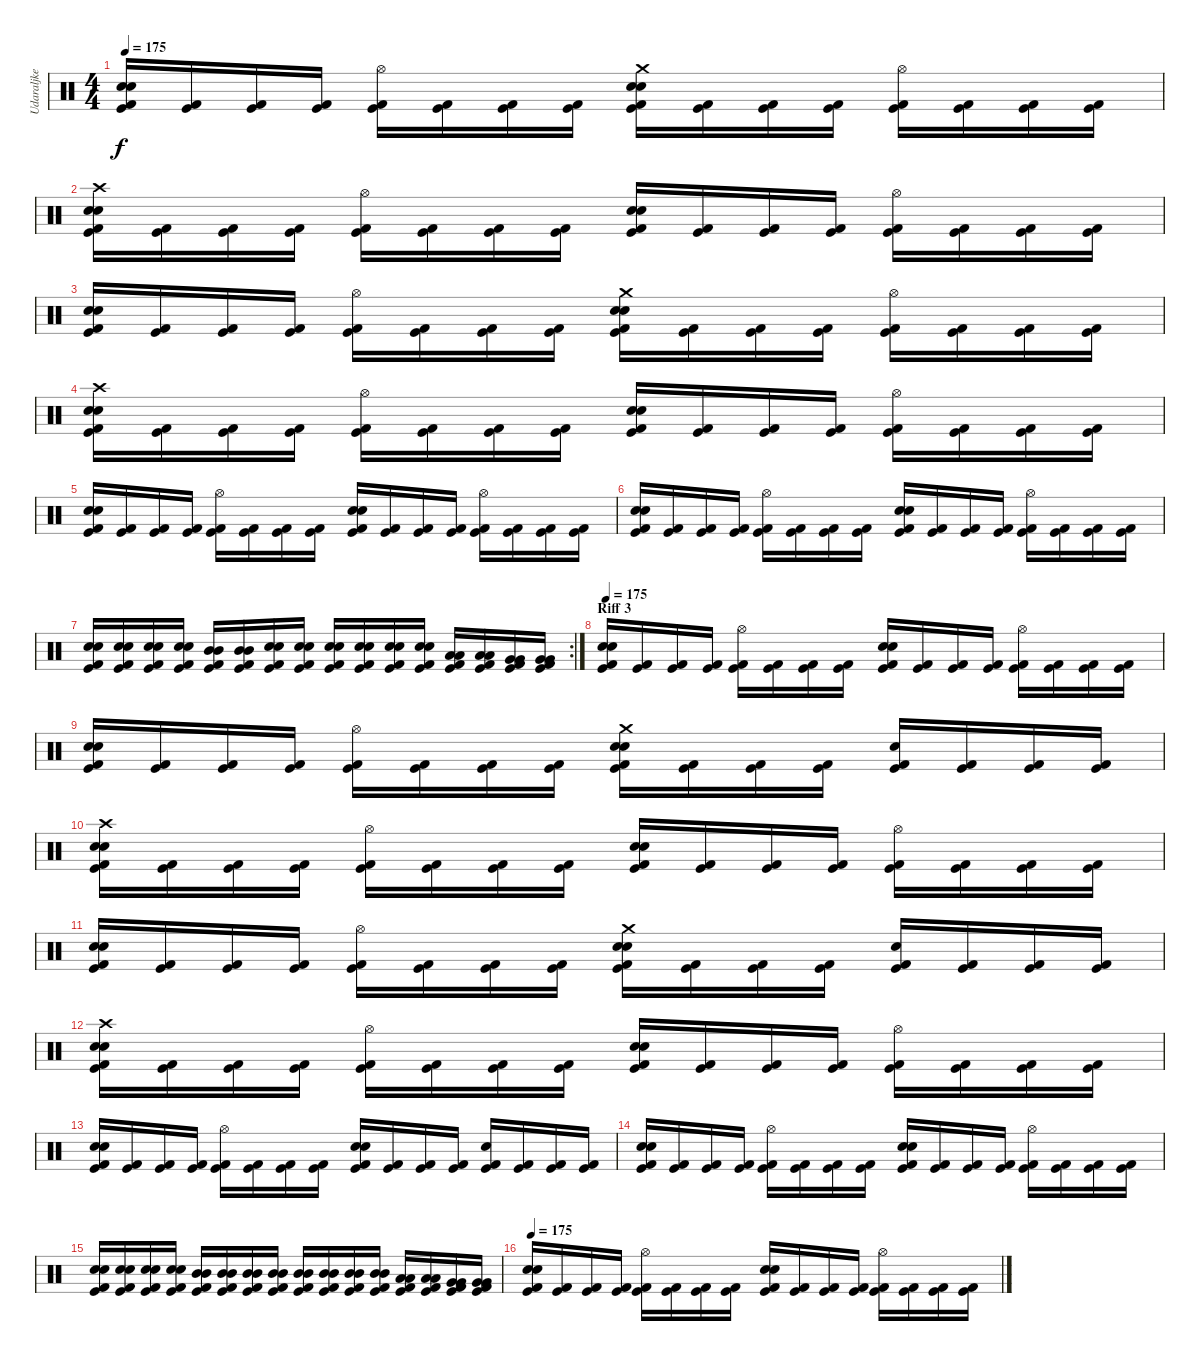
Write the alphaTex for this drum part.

\track ("Udaraljke" "Udaraljke") {instrument percussion}
\staff {score}
\articulation defaults
\ts (4 4)
\tempo 175
\clef neutral
\ks c
("Electric Snare (hit)" "Snare (hit) 2" "Kick (hit) 2" "Kick (hit)").16{dy f} ("Kick (hit) 2" "Kick (hit)").16 ("Kick (hit) 2" "Kick (hit)").16 ("Kick (hit) 2" "Kick (hit)").16 ("Hi-Hat (open)" "Kick (hit) 2" "Kick (hit)").16 ("Kick (hit) 2" "Kick (hit)").16 ("Kick (hit) 2" "Kick (hit)").16 ("Kick (hit) 2" "Kick (hit)").16 ("Crash medium (hit)" "Electric Snare (hit)" "Snare (hit) 2" "Kick (hit) 2" "Kick (hit)").16 ("Kick (hit) 2" "Kick (hit)").16 ("Kick (hit) 2" "Kick (hit)").16 ("Kick (hit) 2" "Kick (hit)").16 ("Hi-Hat (open)" "Kick (hit) 2" "Kick (hit)").16 ("Kick (hit) 2" "Kick (hit)").16 ("Kick (hit) 2" "Kick (hit)").16 ("Kick (hit) 2" "Kick (hit)").16 |
("Crash high (hit)" "Electric Snare (hit)" "Snare (hit) 2" "Kick (hit) 2" "Kick (hit)").16 ("Kick (hit) 2" "Kick (hit)").16 ("Kick (hit) 2" "Kick (hit)").16 ("Kick (hit) 2" "Kick (hit)").16 ("Hi-Hat (open)" "Kick (hit) 2" "Kick (hit)").16 ("Kick (hit) 2" "Kick (hit)").16 ("Kick (hit) 2" "Kick (hit)").16 ("Kick (hit) 2" "Kick (hit)").16 ("Electric Snare (hit)" "Snare (hit) 2" "Kick (hit) 2" "Kick (hit)").16 ("Kick (hit) 2" "Kick (hit)").16 ("Kick (hit) 2" "Kick (hit)").16 ("Kick (hit) 2" "Kick (hit)").16 ("Hi-Hat (open)" "Kick (hit) 2" "Kick (hit)").16 ("Kick (hit) 2" "Kick (hit)").16 ("Kick (hit) 2" "Kick (hit)").16 ("Kick (hit) 2" "Kick (hit)").16 |
("Electric Snare (hit)" "Snare (hit) 2" "Kick (hit) 2" "Kick (hit)").16 ("Kick (hit) 2" "Kick (hit)").16 ("Kick (hit) 2" "Kick (hit)").16 ("Kick (hit) 2" "Kick (hit)").16 ("Hi-Hat (open)" "Kick (hit) 2" "Kick (hit)").16 ("Kick (hit) 2" "Kick (hit)").16 ("Kick (hit) 2" "Kick (hit)").16 ("Kick (hit) 2" "Kick (hit)").16 ("Crash medium (hit)" "Electric Snare (hit)" "Snare (hit) 2" "Kick (hit) 2" "Kick (hit)").16 ("Kick (hit) 2" "Kick (hit)").16 ("Kick (hit) 2" "Kick (hit)").16 ("Kick (hit) 2" "Kick (hit)").16 ("Hi-Hat (open)" "Kick (hit) 2" "Kick (hit)").16 ("Kick (hit) 2" "Kick (hit)").16 ("Kick (hit) 2" "Kick (hit)").16 ("Kick (hit) 2" "Kick (hit)").16 |
("Crash high (hit)" "Electric Snare (hit)" "Snare (hit) 2" "Kick (hit) 2" "Kick (hit)").16 ("Kick (hit) 2" "Kick (hit)").16 ("Kick (hit) 2" "Kick (hit)").16 ("Kick (hit) 2" "Kick (hit)").16 ("Hi-Hat (open)" "Kick (hit) 2" "Kick (hit)").16 ("Kick (hit) 2" "Kick (hit)").16 ("Kick (hit) 2" "Kick (hit)").16 ("Kick (hit) 2" "Kick (hit)").16 ("Electric Snare (hit)" "Snare (hit) 2" "Kick (hit) 2" "Kick (hit)").16 ("Kick (hit) 2" "Kick (hit)").16 ("Kick (hit) 2" "Kick (hit)").16 ("Kick (hit) 2" "Kick (hit)").16 ("Hi-Hat (open)" "Kick (hit) 2" "Kick (hit)").16 ("Kick (hit) 2" "Kick (hit)").16 ("Kick (hit) 2" "Kick (hit)").16 ("Kick (hit) 2" "Kick (hit)").16 |
("Electric Snare (hit)" "Snare (hit) 2" "Kick (hit) 2" "Kick (hit)").16 ("Kick (hit) 2" "Kick (hit)").16 ("Kick (hit) 2" "Kick (hit)").16 ("Kick (hit) 2" "Kick (hit)").16 ("Hi-Hat (open)" "Kick (hit) 2" "Kick (hit)").16 ("Kick (hit) 2" "Kick (hit)").16 ("Kick (hit) 2" "Kick (hit)").16 ("Kick (hit) 2" "Kick (hit)").16 ("Electric Snare (hit)" "Snare (hit) 2" "Kick (hit) 2" "Kick (hit)").16 ("Kick (hit) 2" "Kick (hit)").16 ("Kick (hit) 2" "Kick (hit)").16 ("Kick (hit) 2" "Kick (hit)").16 ("Hi-Hat (open)" "Kick (hit) 2" "Kick (hit)").16 ("Kick (hit) 2" "Kick (hit)").16 ("Kick (hit) 2" "Kick (hit)").16 ("Kick (hit) 2" "Kick (hit)").16 |
("Electric Snare (hit)" "Snare (hit) 2" "Kick (hit) 2" "Kick (hit)").16 ("Kick (hit) 2" "Kick (hit)").16 ("Kick (hit) 2" "Kick (hit)").16 ("Kick (hit) 2" "Kick (hit)").16 ("Hi-Hat (open)" "Kick (hit) 2" "Kick (hit)").16 ("Kick (hit) 2" "Kick (hit)").16 ("Kick (hit) 2" "Kick (hit)").16 ("Kick (hit) 2" "Kick (hit)").16 ("Electric Snare (hit)" "Snare (hit) 2" "Kick (hit) 2" "Kick (hit)").16 ("Kick (hit) 2" "Kick (hit)").16 ("Kick (hit) 2" "Kick (hit)").16 ("Kick (hit) 2" "Kick (hit)").16 ("Hi-Hat (open)" "Kick (hit) 2" "Kick (hit)").16 ("Kick (hit) 2" "Kick (hit)").16 ("Kick (hit) 2" "Kick (hit)").16 ("Kick (hit) 2" "Kick (hit)").16 |
\rc 2
("Electric Snare (hit)" "Electric Snare (hit)" "Kick (hit) 2" "Kick (hit)").16 ("Electric Snare (hit)" "Electric Snare (hit)" "Kick (hit) 2" "Kick (hit)").16 ("Electric Snare (hit)" "Electric Snare (hit)" "Kick (hit) 2" "Kick (hit)").16 ("Electric Snare (hit)" "Electric Snare (hit)" "Kick (hit) 2" "Kick (hit)").16 ("Mid Tom (hit)" "Mid Tom (hit)" "Kick (hit) 2" "Kick (hit)").16 ("Mid Tom (hit)" "Mid Tom (hit)" "Kick (hit) 2" "Kick (hit)").16 ("Electric Snare (hit)" "Electric Snare (hit)" "Kick (hit) 2" "Kick (hit)").16 ("Electric Snare (hit)" "Electric Snare (hit)" "Kick (hit) 2" "Kick (hit)").16 ("Electric Snare (hit)" "Electric Snare (hit)" "Kick (hit) 2" "Kick (hit)").16 ("Electric Snare (hit)" "Electric Snare (hit)" "Kick (hit) 2" "Kick (hit)").16 ("Electric Snare (hit)" "Electric Snare (hit)" "Kick (hit) 2" "Kick (hit)").16 ("Electric Snare (hit)" "Electric Snare (hit)" "Kick (hit) 2" "Kick (hit)").16 ("Low Tom (hit)" "Low Tom (hit)" "Kick (hit) 2" "Kick (hit)").16 ("Low Tom (hit)" "Low Tom (hit)" "Kick (hit) 2" "Kick (hit)").16 ("Very Low Tom (hit)" "Very Low Tom (hit)" "Kick (hit) 2" "Kick (hit)").16 ("Very Low Tom (hit)" "Very Low Tom (hit)" "Kick (hit) 2" "Kick (hit)").16 |
\section ("" "Riff 3")
\tempo 175
("Electric Snare (hit)" "Snare (hit) 2" "Kick (hit) 2" "Kick (hit)").16 ("Kick (hit) 2" "Kick (hit)").16 ("Kick (hit) 2" "Kick (hit)").16 ("Kick (hit) 2" "Kick (hit)").16 ("Hi-Hat (open)" "Kick (hit) 2" "Kick (hit)").16 ("Kick (hit) 2" "Kick (hit)").16 ("Kick (hit) 2" "Kick (hit)").16 ("Kick (hit) 2" "Kick (hit)").16 ("Electric Snare (hit)" "Snare (hit) 2" "Kick (hit) 2" "Kick (hit)").16 ("Kick (hit) 2" "Kick (hit)").16 ("Kick (hit) 2" "Kick (hit)").16 ("Kick (hit) 2" "Kick (hit)").16 ("Hi-Hat (open)" "Kick (hit) 2" "Kick (hit)").16 ("Kick (hit) 2" "Kick (hit)").16 ("Kick (hit) 2" "Kick (hit)").16 ("Kick (hit) 2" "Kick (hit)").16 |
("Electric Snare (hit)" "Snare (hit) 2" "Kick (hit) 2" "Kick (hit)").16 ("Kick (hit) 2" "Kick (hit)").16 ("Kick (hit) 2" "Kick (hit)").16 ("Kick (hit) 2" "Kick (hit)").16 ("Hi-Hat (open)" "Kick (hit) 2" "Kick (hit)").16 ("Kick (hit) 2" "Kick (hit)").16 ("Kick (hit) 2" "Kick (hit)").16 ("Kick (hit) 2" "Kick (hit)").16 ("Crash medium (hit)" "Electric Snare (hit)" "Snare (hit) 2" "Kick (hit) 2" "Kick (hit)").16 ("Kick (hit) 2" "Kick (hit)").16 ("Kick (hit) 2" "Kick (hit)").16 ("Kick (hit) 2" "Kick (hit)").16 ("Electric Snare (hit)" "Kick (hit) 2" "Kick (hit)").16 ("Kick (hit) 2" "Kick (hit)").16 ("Kick (hit) 2" "Kick (hit)").16 ("Kick (hit) 2" "Kick (hit)").16 |
("Crash high (hit)" "Electric Snare (hit)" "Snare (hit) 2" "Kick (hit) 2" "Kick (hit)").16 ("Kick (hit) 2" "Kick (hit)").16 ("Kick (hit) 2" "Kick (hit)").16 ("Kick (hit) 2" "Kick (hit)").16 ("Hi-Hat (open)" "Kick (hit) 2" "Kick (hit)").16 ("Kick (hit) 2" "Kick (hit)").16 ("Kick (hit) 2" "Kick (hit)").16 ("Kick (hit) 2" "Kick (hit)").16 ("Electric Snare (hit)" "Snare (hit) 2" "Kick (hit) 2" "Kick (hit)").16 ("Kick (hit) 2" "Kick (hit)").16 ("Kick (hit) 2" "Kick (hit)").16 ("Kick (hit) 2" "Kick (hit)").16 ("Hi-Hat (open)" "Kick (hit) 2" "Kick (hit)").16 ("Kick (hit) 2" "Kick (hit)").16 ("Kick (hit) 2" "Kick (hit)").16 ("Kick (hit) 2" "Kick (hit)").16 |
("Electric Snare (hit)" "Snare (hit) 2" "Kick (hit) 2" "Kick (hit)").16 ("Kick (hit) 2" "Kick (hit)").16 ("Kick (hit) 2" "Kick (hit)").16 ("Kick (hit) 2" "Kick (hit)").16 ("Hi-Hat (open)" "Kick (hit) 2" "Kick (hit)").16 ("Kick (hit) 2" "Kick (hit)").16 ("Kick (hit) 2" "Kick (hit)").16 ("Kick (hit) 2" "Kick (hit)").16 ("Crash medium (hit)" "Electric Snare (hit)" "Snare (hit) 2" "Kick (hit) 2" "Kick (hit)").16 ("Kick (hit) 2" "Kick (hit)").16 ("Kick (hit) 2" "Kick (hit)").16 ("Kick (hit) 2" "Kick (hit)").16 ("Electric Snare (hit)" "Kick (hit) 2" "Kick (hit)").16 ("Kick (hit) 2" "Kick (hit)").16 ("Kick (hit) 2" "Kick (hit)").16 ("Kick (hit) 2" "Kick (hit)").16 |
("Crash high (hit)" "Electric Snare (hit)" "Snare (hit) 2" "Kick (hit) 2" "Kick (hit)").16 ("Kick (hit) 2" "Kick (hit)").16 ("Kick (hit) 2" "Kick (hit)").16 ("Kick (hit) 2" "Kick (hit)").16 ("Hi-Hat (open)" "Kick (hit) 2" "Kick (hit)").16 ("Kick (hit) 2" "Kick (hit)").16 ("Kick (hit) 2" "Kick (hit)").16 ("Kick (hit) 2" "Kick (hit)").16 ("Electric Snare (hit)" "Snare (hit) 2" "Kick (hit) 2" "Kick (hit)").16 ("Kick (hit) 2" "Kick (hit)").16 ("Kick (hit) 2" "Kick (hit)").16 ("Kick (hit) 2" "Kick (hit)").16 ("Hi-Hat (open)" "Kick (hit) 2" "Kick (hit)").16 ("Kick (hit) 2" "Kick (hit)").16 ("Kick (hit) 2" "Kick (hit)").16 ("Kick (hit) 2" "Kick (hit)").16 |
("Electric Snare (hit)" "Snare (hit) 2" "Kick (hit) 2" "Kick (hit)").16 ("Kick (hit) 2" "Kick (hit)").16 ("Kick (hit) 2" "Kick (hit)").16 ("Kick (hit) 2" "Kick (hit)").16 ("Hi-Hat (open)" "Kick (hit) 2" "Kick (hit)").16 ("Kick (hit) 2" "Kick (hit)").16 ("Kick (hit) 2" "Kick (hit)").16 ("Kick (hit) 2" "Kick (hit)").16 ("Electric Snare (hit)" "Snare (hit) 2" "Kick (hit) 2" "Kick (hit)").16 ("Kick (hit) 2" "Kick (hit)").16 ("Kick (hit) 2" "Kick (hit)").16 ("Kick (hit) 2" "Kick (hit)").16 ("Electric Snare (hit)" "Kick (hit) 2" "Kick (hit)").16 ("Kick (hit) 2" "Kick (hit)").16 ("Kick (hit) 2" "Kick (hit)").16 ("Kick (hit) 2" "Kick (hit)").16 |
("Electric Snare (hit)" "Snare (hit) 2" "Kick (hit) 2" "Kick (hit)").16 ("Kick (hit) 2" "Kick (hit)").16 ("Kick (hit) 2" "Kick (hit)").16 ("Kick (hit) 2" "Kick (hit)").16 ("Hi-Hat (open)" "Kick (hit) 2" "Kick (hit)").16 ("Kick (hit) 2" "Kick (hit)").16 ("Kick (hit) 2" "Kick (hit)").16 ("Kick (hit) 2" "Kick (hit)").16 ("Electric Snare (hit)" "Snare (hit) 2" "Kick (hit) 2" "Kick (hit)").16 ("Kick (hit) 2" "Kick (hit)").16 ("Kick (hit) 2" "Kick (hit)").16 ("Kick (hit) 2" "Kick (hit)").16 ("Hi-Hat (open)" "Kick (hit) 2" "Kick (hit)").16 ("Kick (hit) 2" "Kick (hit)").16 ("Kick (hit) 2" "Kick (hit)").16 ("Kick (hit) 2" "Kick (hit)").16 |
("Electric Snare (hit)" "Electric Snare (hit)" "Kick (hit) 2" "Kick (hit)").16 ("Electric Snare (hit)" "Electric Snare (hit)" "Kick (hit) 2" "Kick (hit)").16 ("Electric Snare (hit)" "Electric Snare (hit)" "Kick (hit) 2" "Kick (hit)").16 ("Electric Snare (hit)" "Electric Snare (hit)" "Kick (hit) 2" "Kick (hit)").16 ("Mid Tom (hit)" "Mid Tom (hit)" "Kick (hit) 2" "Kick (hit)").16 ("Mid Tom (hit)" "Mid Tom (hit)" "Kick (hit) 2" "Kick (hit)").16 ("Mid Tom (hit)" "Mid Tom (hit)" "Kick (hit) 2" "Kick (hit)").16 ("Mid Tom (hit)" "Mid Tom (hit)" "Kick (hit) 2" "Kick (hit)").16 ("Mid Tom (hit)" "Mid Tom (hit)" "Kick (hit) 2" "Kick (hit)").16 ("Mid Tom (hit)" "Mid Tom (hit)" "Kick (hit) 2" "Kick (hit)").16 ("Mid Tom (hit)" "Mid Tom (hit)" "Kick (hit) 2" "Kick (hit)").16 ("Mid Tom (hit)" "Mid Tom (hit)" "Kick (hit) 2" "Kick (hit)").16 ("Low Tom (hit)" "Low Tom (hit)" "Kick (hit) 2" "Kick (hit)").16 ("Low Tom (hit)" "Low Tom (hit)" "Kick (hit) 2" "Kick (hit)").16 ("Very Low Tom (hit)" "Very Low Tom (hit)" "Kick (hit) 2" "Kick (hit)").16 ("Very Low Tom (hit)" "Very Low Tom (hit)" "Kick (hit) 2" "Kick (hit)").16 |
\tempo 175
("Electric Snare (hit)" "Snare (hit) 2" "Kick (hit) 2" "Kick (hit)").16 ("Kick (hit) 2" "Kick (hit)").16 ("Kick (hit) 2" "Kick (hit)").16 ("Kick (hit) 2" "Kick (hit)").16 ("Hi-Hat (open)" "Kick (hit) 2" "Kick (hit)").16 ("Kick (hit) 2" "Kick (hit)").16 ("Kick (hit) 2" "Kick (hit)").16 ("Kick (hit) 2" "Kick (hit)").16 ("Electric Snare (hit)" "Snare (hit) 2" "Kick (hit) 2" "Kick (hit)").16 ("Kick (hit) 2" "Kick (hit)").16 ("Kick (hit) 2" "Kick (hit)").16 ("Kick (hit) 2" "Kick (hit)").16 ("Hi-Hat (open)" "Kick (hit) 2" "Kick (hit)").16 ("Kick (hit) 2" "Kick (hit)").16 ("Kick (hit) 2" "Kick (hit)").16 ("Kick (hit) 2" "Kick (hit)").16
